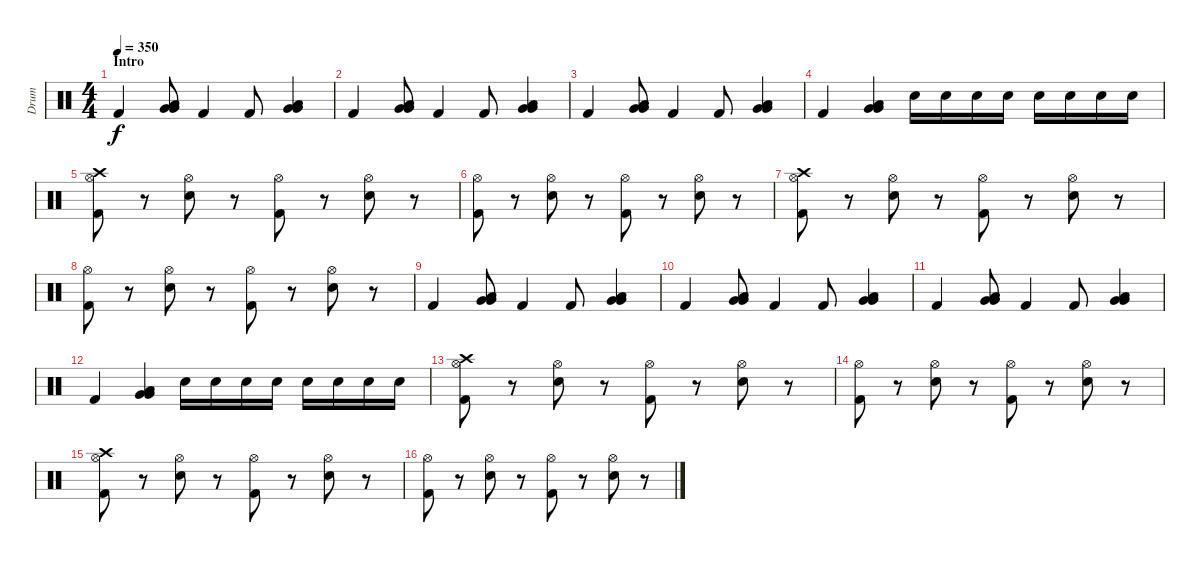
\track ("Drum" "Drum") {instrument percussion}
\staff {score}
\articulation defaults
\ts (4 4)
\section ("" "Intro")
\tempo 350
\clef neutral
\ks c "Kick (hit) 2".4{dy f}
("Very Low Tom (hit)" "Very Low Tom (hit)" "Low Floor Tom (hit)").8 "Kick (hit) 2".4 "Kick (hit) 2".8 ("Very Low Tom (hit)" "Very Low Tom (hit)" "Low Floor Tom (hit)").4 |
"Kick (hit) 2".4 ("Very Low Tom (hit)" "Very Low Tom (hit)" "Low Floor Tom (hit)").8 "Kick (hit) 2".4 "Kick (hit) 2".8 ("Very Low Tom (hit)" "Very Low Tom (hit)" "Low Floor Tom (hit)").4 |
"Kick (hit) 2".4 ("Very Low Tom (hit)" "Very Low Tom (hit)" "Low Floor Tom (hit)").8 "Kick (hit) 2".4 "Kick (hit) 2".8 ("Very Low Tom (hit)" "Very Low Tom (hit)" "Low Floor Tom (hit)").4 |
"Kick (hit) 2".4 ("Very Low Tom (hit)" "Very Low Tom (hit)" "Low Floor Tom (hit)").4 "Electric Snare (hit)".16 "Electric Snare (hit)".16 "Electric Snare (hit)".16 "Electric Snare (hit)".16 "Electric Snare (hit)".16 "Electric Snare (hit)".16 "Electric Snare (hit)".16 "Electric Snare (hit)".16 |
("Crash high (hit)" "Hi-Hat (open)" "Kick (hit) 2").8 r.8 ("Hi-Hat (open)" "Electric Snare (hit)").8 r.8 ("Hi-Hat (open)" "Kick (hit) 2").8 r.8 ("Hi-Hat (open)" "Electric Snare (hit)").8 r.8 |
("Hi-Hat (open)" "Kick (hit) 2").8 r.8 ("Hi-Hat (open)" "Electric Snare (hit)").8 r.8 ("Hi-Hat (open)" "Kick (hit) 2").8 r.8 ("Hi-Hat (open)" "Electric Snare (hit)").8 r.8 |
("Crash high (hit)" "Hi-Hat (open)" "Kick (hit) 2").8 r.8 ("Hi-Hat (open)" "Electric Snare (hit)").8 r.8 ("Hi-Hat (open)" "Kick (hit) 2").8 r.8 ("Hi-Hat (open)" "Electric Snare (hit)").8 r.8 |
("Hi-Hat (open)" "Kick (hit) 2").8 r.8 ("Hi-Hat (open)" "Electric Snare (hit)").8 r.8 ("Hi-Hat (open)" "Kick (hit) 2").8 r.8 ("Hi-Hat (open)" "Electric Snare (hit)").8 r.8 |
"Kick (hit) 2".4 ("Very Low Tom (hit)" "Very Low Tom (hit)" "Low Floor Tom (hit)").8 "Kick (hit) 2".4 "Kick (hit) 2".8 ("Very Low Tom (hit)" "Very Low Tom (hit)" "Low Floor Tom (hit)").4 |
"Kick (hit) 2".4 ("Very Low Tom (hit)" "Very Low Tom (hit)" "Low Floor Tom (hit)").8 "Kick (hit) 2".4 "Kick (hit) 2".8 ("Very Low Tom (hit)" "Very Low Tom (hit)" "Low Floor Tom (hit)").4 |
"Kick (hit) 2".4 ("Very Low Tom (hit)" "Very Low Tom (hit)" "Low Floor Tom (hit)").8 "Kick (hit) 2".4 "Kick (hit) 2".8 ("Very Low Tom (hit)" "Very Low Tom (hit)" "Low Floor Tom (hit)").4 |
"Kick (hit) 2".4 ("Very Low Tom (hit)" "Very Low Tom (hit)" "Low Floor Tom (hit)").4 "Electric Snare (hit)".16 "Electric Snare (hit)".16 "Electric Snare (hit)".16 "Electric Snare (hit)".16 "Electric Snare (hit)".16 "Electric Snare (hit)".16 "Electric Snare (hit)".16 "Electric Snare (hit)".16 |
("Crash high (hit)" "Hi-Hat (open)" "Kick (hit) 2").8 r.8 ("Hi-Hat (open)" "Electric Snare (hit)").8 r.8 ("Hi-Hat (open)" "Kick (hit) 2").8 r.8 ("Hi-Hat (open)" "Electric Snare (hit)").8 r.8 |
("Hi-Hat (open)" "Kick (hit) 2").8 r.8 ("Hi-Hat (open)" "Electric Snare (hit)").8 r.8 ("Hi-Hat (open)" "Kick (hit) 2").8 r.8 ("Hi-Hat (open)" "Electric Snare (hit)").8 r.8 |
("Crash high (hit)" "Hi-Hat (open)" "Kick (hit) 2").8 r.8 ("Hi-Hat (open)" "Electric Snare (hit)").8 r.8 ("Hi-Hat (open)" "Kick (hit) 2").8 r.8 ("Hi-Hat (open)" "Electric Snare (hit)").8 r.8 |
("Hi-Hat (open)" "Kick (hit) 2").8 r.8 ("Hi-Hat (open)" "Electric Snare (hit)").8 r.8 ("Hi-Hat (open)" "Kick (hit) 2").8 r.8 ("Hi-Hat (open)" "Electric Snare (hit)").8 r.8
